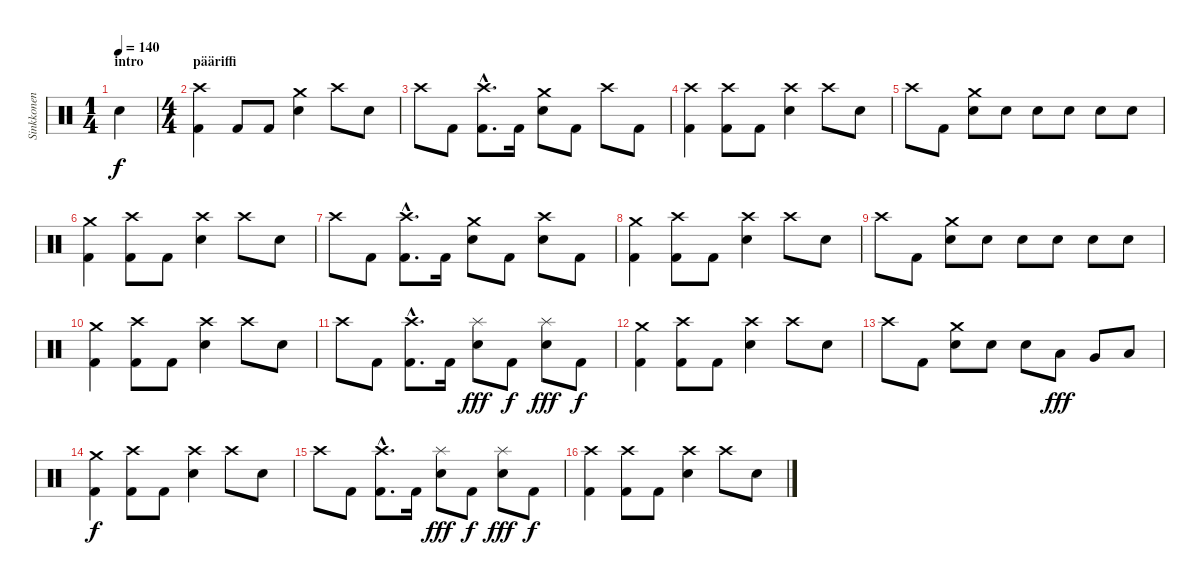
\track ("Sinkkonen" "Sinkkonen") {instrument percussion}
\staff {score}
\articulation defaults
\ts (1 4)
\section ("" "intro")
\tempo 140
\clef neutral
\ks c "Snare (hit) 2".4{dy f}
|
\ts (4 4)
\section ("" "pääriffi")
("Kick (hit) 2" "Crash high (hit)").4 "Kick (hit) 2".8 "Kick (hit) 2".8 ("Crash medium (hit)" "Snare (hit) 2").4 "Crash high (hit)".8 "Snare (hit) 2".8 |
"Crash high (hit)".8 "Kick (hit) 2".8 ("Kick (hit) 2"{hac} "Crash high (hit)"{hac}).8{d} "Kick (hit) 2".16 ("Crash medium (hit)" "Snare (hit) 2").8 "Kick (hit) 2".8 "Crash high (hit)".8 "Kick (hit) 2".8 |
("Kick (hit) 2" "Crash high (hit)").4 ("Kick (hit) 2" "Crash high (hit)").8 "Kick (hit) 2".8 ("Crash high (hit)" "Snare (hit) 2").4 "Crash high (hit)".8 "Snare (hit) 2".8 |
"Crash high (hit)".8 "Kick (hit) 2".8 ("Crash medium (hit)" "Snare (hit) 2").8 "Snare (hit) 2".8 "Snare (hit) 2".8 "Snare (hit) 2".8 "Snare (hit) 2".8 "Snare (hit) 2".8 |
("Kick (hit) 2" "Crash medium (hit)").4 ("Kick (hit) 2" "Crash high (hit)").8 "Kick (hit) 2".8 ("Crash high (hit)" "Snare (hit) 2").4 "Crash high (hit)".8 "Snare (hit) 2".8 |
"Crash high (hit)".8 "Kick (hit) 2".8 ("Kick (hit) 2"{hac} "Crash high (hit)"{hac}).8{d} "Kick (hit) 2".16 ("Crash medium (hit)" "Snare (hit) 2").8 "Kick (hit) 2".8 ("Crash high (hit)" "Snare (hit) 2").8 "Kick (hit) 2".8 |
("Kick (hit) 2" "Crash medium (hit)").4 ("Kick (hit) 2" "Crash high (hit)").8 "Kick (hit) 2".8 ("Crash high (hit)" "Snare (hit) 2").4 "Crash high (hit)".8 "Snare (hit) 2".8 |
"Crash high (hit)".8 "Kick (hit) 2".8 ("Crash medium (hit)" "Snare (hit) 2").8 "Snare (hit) 2".8 "Snare (hit) 2".8 "Snare (hit) 2".8 "Snare (hit) 2".8 "Snare (hit) 2".8 |
("Kick (hit) 2" "Crash medium (hit)").4 ("Kick (hit) 2" "Crash high (hit)").8 "Kick (hit) 2".8 ("Crash high (hit)" "Snare (hit) 2").4 "Crash high (hit)".8 "Snare (hit) 2".8 |
"Crash high (hit)".8 "Kick (hit) 2".8 ("Kick (hit) 2"{hac} "Crash high (hit)"{hac}).8{d} "Kick (hit) 2".16 ("Splash (hit)" "Snare (hit) 2").8{dy fff} "Kick (hit) 2".8{dy f} ("Splash (hit)" "Snare (hit) 2").8{dy fff} "Kick (hit) 2".8{dy f} |
("Kick (hit) 2" "Crash medium (hit)").4 ("Kick (hit) 2" "Crash high (hit)").8 "Kick (hit) 2".8 ("Crash high (hit)" "Snare (hit) 2").4 "Crash high (hit)".8 "Snare (hit) 2".8 |
"Crash high (hit)".8 "Kick (hit) 2".8 ("Crash medium (hit)" "Snare (hit) 2").8 "Snare (hit) 2".8 "Snare (hit) 2".8 "Low Tom (hit)".8{dy fff} "Very Low Tom (hit)".8 "Low Floor Tom (hit)".8 |
("Kick (hit) 2" "Crash medium (hit)").4{dy f} ("Kick (hit) 2" "Crash high (hit)").8 "Kick (hit) 2".8 ("Crash high (hit)" "Snare (hit) 2").4 "Crash high (hit)".8 "Snare (hit) 2".8 |
"Crash high (hit)".8 "Kick (hit) 2".8 ("Kick (hit) 2"{hac} "Crash high (hit)"{hac}).8{d} "Kick (hit) 2".16 ("Splash (hit)" "Snare (hit) 2").8{dy fff} "Kick (hit) 2".8{dy f} ("Splash (hit)" "Snare (hit) 2").8{dy fff} "Kick (hit) 2".8{dy f} |
("Kick (hit) 2" "Crash high (hit)").4 ("Kick (hit) 2" "Crash high (hit)").8 "Kick (hit) 2".8 ("Crash high (hit)" "Snare (hit) 2").4 "Crash high (hit)".8 "Snare (hit) 2".8
